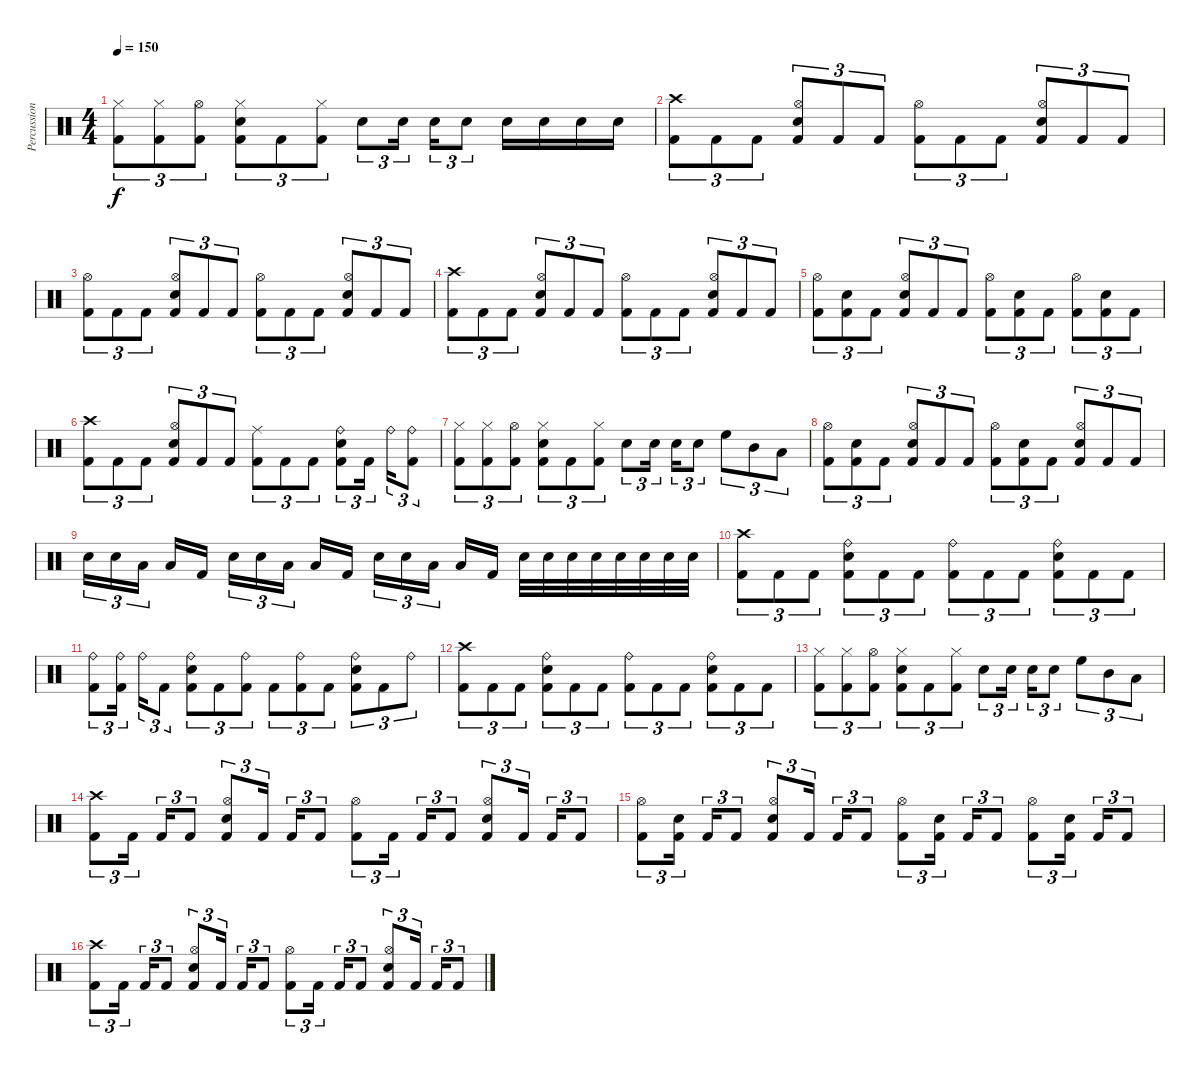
\track ("Percussion" "Percussion") {instrument percussion}
\staff {score}
\articulation defaults
\ts (4 4)
\tempo 150
\clef neutral
\ks c
("Hi-Hat (closed)" "Kick (hit) 2").8{tu (3 2) dy f} ("Hi-Hat (closed)" "Kick (hit) 2").8{tu (3 2)} ("Hi-Hat (open)" "Kick (hit) 2").8{tu (3 2)} ("Hi-Hat (closed)" "Electric Snare (hit)" "Kick (hit) 2").8{tu (3 2)} "Kick (hit) 2".8{tu (3 2)} ("Hi-Hat (closed)" "Kick (hit) 2").8{tu (3 2)} "Electric Snare (hit)".8{tu (3 2)} "Electric Snare (hit)".16{tu (3 2)} "Electric Snare (hit)".16{tu (3 2)} "Electric Snare (hit)".8{tu (3 2)} "Electric Snare (hit)".16 "Electric Snare (hit)".16 "Electric Snare (hit)".16 "Electric Snare (hit)".16 |
("Crash high (hit)" "Kick (hit) 2").8{tu (3 2)} "Kick (hit) 2".8{tu (3 2)} "Kick (hit) 2".8{tu (3 2)} ("Hi-Hat (open)" "Electric Snare (hit)" "Kick (hit) 2").8{tu (3 2)} "Kick (hit) 2".8{tu (3 2)} "Kick (hit) 2".8{tu (3 2)} ("Hi-Hat (open)" "Kick (hit) 2").8{tu (3 2)} "Kick (hit) 2".8{tu (3 2)} "Kick (hit) 2".8{tu (3 2)} ("Hi-Hat (open)" "Electric Snare (hit)" "Kick (hit) 2").8{tu (3 2)} "Kick (hit) 2".8{tu (3 2)} "Kick (hit) 2".8{tu (3 2)} |
("Hi-Hat (open)" "Kick (hit) 2").8{tu (3 2)} "Kick (hit) 2".8{tu (3 2)} "Kick (hit) 2".8{tu (3 2)} ("Hi-Hat (open)" "Electric Snare (hit)" "Kick (hit) 2").8{tu (3 2)} "Kick (hit) 2".8{tu (3 2)} "Kick (hit) 2".8{tu (3 2)} ("Hi-Hat (open)" "Kick (hit) 2").8{tu (3 2)} "Kick (hit) 2".8{tu (3 2)} "Kick (hit) 2".8{tu (3 2)} ("Hi-Hat (open)" "Electric Snare (hit)" "Kick (hit) 2").8{tu (3 2)} "Kick (hit) 2".8{tu (3 2)} "Kick (hit) 2".8{tu (3 2)} |
("Crash high (hit)" "Kick (hit) 2").8{tu (3 2)} "Kick (hit) 2".8{tu (3 2)} "Kick (hit) 2".8{tu (3 2)} ("Hi-Hat (open)" "Electric Snare (hit)" "Kick (hit) 2").8{tu (3 2)} "Kick (hit) 2".8{tu (3 2)} "Kick (hit) 2".8{tu (3 2)} ("Hi-Hat (open)" "Kick (hit) 2").8{tu (3 2)} "Kick (hit) 2".8{tu (3 2)} "Kick (hit) 2".8{tu (3 2)} ("Hi-Hat (open)" "Electric Snare (hit)" "Kick (hit) 2").8{tu (3 2)} "Kick (hit) 2".8{tu (3 2)} "Kick (hit) 2".8{tu (3 2)} |
("Hi-Hat (open)" "Kick (hit) 2").8{tu (3 2)} ("Electric Snare (hit)" "Kick (hit) 2").8{tu (3 2)} "Kick (hit) 2".8{tu (3 2)} ("Hi-Hat (open)" "Electric Snare (hit)" "Kick (hit) 2").8{tu (3 2)} "Kick (hit) 2".8{tu (3 2)} "Kick (hit) 2".8{tu (3 2)} ("Hi-Hat (open)" "Kick (hit) 2").8{tu (3 2)} ("Electric Snare (hit)" "Kick (hit) 2").8{tu (3 2)} "Kick (hit) 2".8{tu (3 2)} ("Hi-Hat (open)" "Kick (hit) 2").8{tu (3 2)} ("Electric Snare (hit)" "Kick (hit) 2").8{tu (3 2)} "Kick (hit) 2".8{tu (3 2)} |
("Crash high (hit)" "Kick (hit) 2").8{tu (3 2)} "Kick (hit) 2".8{tu (3 2)} "Kick (hit) 2".8{tu (3 2)} ("Hi-Hat (open)" "Electric Snare (hit)" "Kick (hit) 2").8{tu (3 2)} "Kick (hit) 2".8{tu (3 2)} "Kick (hit) 2".8{tu (3 2)} ("Ride (middle)" "Kick (hit) 2").8{tu (3 2)} "Kick (hit) 2".8{tu (3 2)} "Kick (hit) 2".8{tu (3 2)} ("Ride (bell)" "Electric Snare (hit)" "Kick (hit) 2").8{tu (3 2)} "Kick (hit) 2".16{tu (3 2)} "Ride (bell)".16{tu (3 2)} ("Ride (bell)" "Kick (hit) 2").8{tu (3 2)} |
("Hi-Hat (closed)" "Kick (hit) 2").8{tu (3 2)} ("Hi-Hat (closed)" "Kick (hit) 2").8{tu (3 2)} ("Hi-Hat (open)" "Kick (hit) 2").8{tu (3 2)} ("Hi-Hat (closed)" "Electric Snare (hit)" "Kick (hit) 2").8{tu (3 2)} "Kick (hit) 2".8{tu (3 2)} ("Hi-Hat (closed)" "Kick (hit) 2").8{tu (3 2)} "Electric Snare (hit)".8{tu (3 2)} "Electric Snare (hit)".16{tu (3 2)} "Electric Snare (hit)".16{tu (3 2)} "Electric Snare (hit)".8{tu (3 2)} "High Floor Tom (hit)".8{tu (3 2)} "Mid Tom (hit)".8{tu (3 2)} "Low Floor Tom (hit)".8{tu (3 2)} |
("Hi-Hat (open)" "Kick (hit) 2").8{tu (3 2)} ("Electric Snare (hit)" "Kick (hit) 2").8{tu (3 2)} "Kick (hit) 2".8{tu (3 2)} ("Hi-Hat (open)" "Electric Snare (hit)" "Kick (hit) 2").8{tu (3 2)} "Kick (hit) 2".8{tu (3 2)} "Kick (hit) 2".8{tu (3 2)} ("Hi-Hat (open)" "Kick (hit) 2").8{tu (3 2)} ("Electric Snare (hit)" "Kick (hit) 2").8{tu (3 2)} "Kick (hit) 2".8{tu (3 2)} ("Hi-Hat (open)" "Electric Snare (hit)" "Kick (hit) 2").8{tu (3 2)} "Kick (hit) 2".8{tu (3 2)} "Kick (hit) 2".8{tu (3 2)} |
"Electric Snare (hit)".16{tu (3 2)} "Electric Snare (hit)".16{tu (3 2)} "Low Tom (hit)".16{tu (3 2)} "Low Floor Tom (hit)".16 "Kick (hit) 2".16 "Electric Snare (hit)".16{tu (3 2)} "Electric Snare (hit)".16{tu (3 2)} "Low Tom (hit)".16{tu (3 2)} "Low Floor Tom (hit)".16 "Kick (hit) 2".16 "Electric Snare (hit)".16{tu (3 2)} "Electric Snare (hit)".16{tu (3 2)} "Low Tom (hit)".16{tu (3 2)} "Low Floor Tom (hit)".16 "Kick (hit) 2".16 "Electric Snare (hit)".32 "Electric Snare (hit)".32 "Electric Snare (hit)".32 "Electric Snare (hit)".32 "Electric Snare (hit)".32 "Electric Snare (hit)".32 "Electric Snare (hit)".32 "Electric Snare (hit)".32 |
("Crash high (hit)" "Kick (hit) 2").8{tu (3 2)} "Kick (hit) 2".8{tu (3 2)} "Kick (hit) 2".8{tu (3 2)} ("Ride (bell)" "Electric Snare (hit)" "Kick (hit) 2").8{tu (3 2)} "Kick (hit) 2".8{tu (3 2)} "Kick (hit) 2".8{tu (3 2)} ("Ride (bell)" "Kick (hit) 2").8{tu (3 2)} "Kick (hit) 2".8{tu (3 2)} "Kick (hit) 2".8{tu (3 2)} ("Ride (bell)" "Electric Snare (hit)" "Kick (hit) 2").8{tu (3 2)} "Kick (hit) 2".8{tu (3 2)} "Kick (hit) 2".8{tu (3 2)} |
("Ride (bell)" "Kick (hit) 2").8{tu (3 2)} ("Ride (bell)" "Kick (hit) 2").16{tu (3 2)} "Ride (bell)".16{tu (3 2)} "Kick (hit) 2".8{tu (3 2)} ("Ride (bell)" "Electric Snare (hit)" "Kick (hit) 2").8{tu (3 2)} "Kick (hit) 2".8{tu (3 2)} ("Ride (bell)" "Kick (hit) 2").8{tu (3 2)} "Kick (hit) 2".8{tu (3 2)} ("Ride (bell)" "Kick (hit) 2").8{tu (3 2)} "Kick (hit) 2".8{tu (3 2)} ("Ride (bell)" "Electric Snare (hit)" "Kick (hit) 2").8{tu (3 2)} "Kick (hit) 2".8{tu (3 2)} "Ride (bell)".8{tu (3 2)} |
("Crash high (hit)" "Kick (hit) 2").8{tu (3 2)} "Kick (hit) 2".8{tu (3 2)} "Kick (hit) 2".8{tu (3 2)} ("Ride (bell)" "Electric Snare (hit)" "Kick (hit) 2").8{tu (3 2)} "Kick (hit) 2".8{tu (3 2)} "Kick (hit) 2".8{tu (3 2)} ("Ride (bell)" "Kick (hit) 2").8{tu (3 2)} "Kick (hit) 2".8{tu (3 2)} "Kick (hit) 2".8{tu (3 2)} ("Ride (bell)" "Electric Snare (hit)" "Kick (hit) 2").8{tu (3 2)} "Kick (hit) 2".8{tu (3 2)} "Kick (hit) 2".8{tu (3 2)} |
("Hi-Hat (closed)" "Kick (hit) 2").8{tu (3 2)} ("Hi-Hat (closed)" "Kick (hit) 2").8{tu (3 2)} ("Hi-Hat (open)" "Kick (hit) 2").8{tu (3 2)} ("Hi-Hat (closed)" "Electric Snare (hit)" "Kick (hit) 2").8{tu (3 2)} "Kick (hit) 2".8{tu (3 2)} ("Hi-Hat (closed)" "Kick (hit) 2").8{tu (3 2)} "Electric Snare (hit)".8{tu (3 2)} "Electric Snare (hit)".16{tu (3 2)} "Electric Snare (hit)".16{tu (3 2)} "Electric Snare (hit)".8{tu (3 2)} "High Floor Tom (hit)".8{tu (3 2)} "Mid Tom (hit)".8{tu (3 2)} "Low Floor Tom (hit)".8{tu (3 2)} |
("Crash high (hit)" "Kick (hit) 2").8{tu (3 2)} "Kick (hit) 2".16{tu (3 2)} "Kick (hit) 2".16{tu (3 2)} "Kick (hit) 2".8{tu (3 2)} ("Hi-Hat (open)" "Electric Snare (hit)" "Kick (hit) 2").8{tu (3 2)} "Kick (hit) 2".16{tu (3 2)} "Kick (hit) 2".16{tu (3 2)} "Kick (hit) 2".8{tu (3 2)} ("Hi-Hat (open)" "Kick (hit) 2").8{tu (3 2)} "Kick (hit) 2".16{tu (3 2)} "Kick (hit) 2".16{tu (3 2)} "Kick (hit) 2".8{tu (3 2)} ("Hi-Hat (open)" "Electric Snare (hit)" "Kick (hit) 2").8{tu (3 2)} "Kick (hit) 2".16{tu (3 2)} "Kick (hit) 2".16{tu (3 2)} "Kick (hit) 2".8{tu (3 2)} |
("Hi-Hat (open)" "Kick (hit) 2").8{tu (3 2)} ("Electric Snare (hit)" "Kick (hit) 2").16{tu (3 2)} "Kick (hit) 2".16{tu (3 2)} "Kick (hit) 2".8{tu (3 2)} ("Hi-Hat (open)" "Electric Snare (hit)" "Kick (hit) 2").8{tu (3 2)} "Kick (hit) 2".16{tu (3 2)} "Kick (hit) 2".16{tu (3 2)} "Kick (hit) 2".8{tu (3 2)} ("Hi-Hat (open)" "Kick (hit) 2").8{tu (3 2)} ("Electric Snare (hit)" "Kick (hit) 2").16{tu (3 2)} "Kick (hit) 2".16{tu (3 2)} "Kick (hit) 2".8{tu (3 2)} ("Hi-Hat (open)" "Kick (hit) 2").8{tu (3 2)} ("Electric Snare (hit)" "Kick (hit) 2").16{tu (3 2)} "Kick (hit) 2".16{tu (3 2)} "Kick (hit) 2".8{tu (3 2)} |
("Crash high (hit)" "Kick (hit) 2").8{tu (3 2)} "Kick (hit) 2".16{tu (3 2)} "Kick (hit) 2".16{tu (3 2)} "Kick (hit) 2".8{tu (3 2)} ("Hi-Hat (open)" "Electric Snare (hit)" "Kick (hit) 2").8{tu (3 2)} "Kick (hit) 2".16{tu (3 2)} "Kick (hit) 2".16{tu (3 2)} "Kick (hit) 2".8{tu (3 2)} ("Hi-Hat (open)" "Kick (hit) 2").8{tu (3 2)} "Kick (hit) 2".16{tu (3 2)} "Kick (hit) 2".16{tu (3 2)} "Kick (hit) 2".8{tu (3 2)} ("Hi-Hat (open)" "Electric Snare (hit)" "Kick (hit) 2").8{tu (3 2)} "Kick (hit) 2".16{tu (3 2)} "Kick (hit) 2".16{tu (3 2)} "Kick (hit) 2".8{tu (3 2)}
